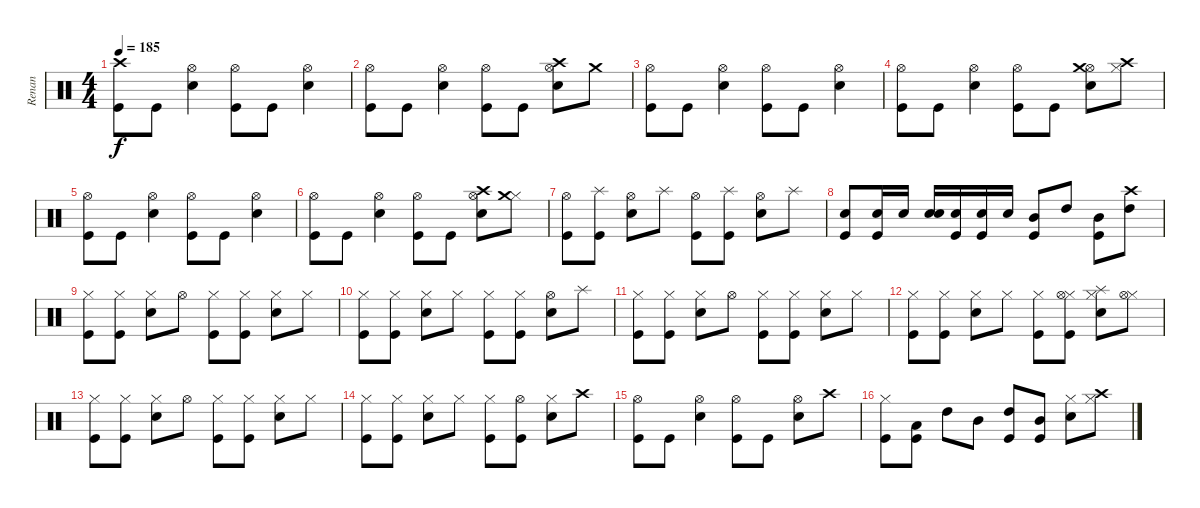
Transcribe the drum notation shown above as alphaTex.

\track ("Renan" "Renan") {instrument percussion}
\staff {score}
\articulation defaults
\ts (4 4)
\tempo 185
\clef neutral
\ks c
("Crash high (hit)" "Kick (hit)").8{dy f} "Kick (hit)".8 ("Hi-Hat (open)" "Snare (hit) 2").4 ("Hi-Hat (open)" "Kick (hit)").8 "Kick (hit)".8 ("Hi-Hat (open)" "Snare (hit) 2").4 |
("Hi-Hat (open)" "Kick (hit)").8 "Kick (hit)".8 ("Hi-Hat (open)" "Snare (hit) 2").4 ("Hi-Hat (open)" "Kick (hit)").8 "Kick (hit)".8 ("Hi-Hat (open)" "Crash high (hit)" "Snare (hit) 2").8 "Crash medium (hit)".8 |
("Hi-Hat (open)" "Kick (hit)").8 "Kick (hit)".8 ("Hi-Hat (open)" "Snare (hit) 2").4 ("Hi-Hat (open)" "Kick (hit)").8 "Kick (hit)".8 ("Hi-Hat (open)" "Snare (hit) 2").4 |
("Hi-Hat (open)" "Kick (hit)").8 "Kick (hit)".8 ("Hi-Hat (open)" "Snare (hit) 2").4 ("Hi-Hat (open)" "Kick (hit)").8 "Kick (hit)".8 ("Hi-Hat (open)" "Crash medium (hit)" "Snare (hit) 2").8 ("Hi-Hat (closed)" "Crash high (hit)").8 |
("Hi-Hat (open)" "Kick (hit)").8 "Kick (hit)".8 ("Hi-Hat (open)" "Snare (hit) 2").4 ("Hi-Hat (open)" "Kick (hit)").8 "Kick (hit)".8 ("Hi-Hat (open)" "Snare (hit) 2").4 |
("Hi-Hat (open)" "Kick (hit)").8 "Kick (hit)".8 ("Hi-Hat (open)" "Snare (hit) 2").4 ("Hi-Hat (open)" "Kick (hit)").8 "Kick (hit)".8 ("Hi-Hat (open)" "Crash high (hit)" "Snare (hit) 2").8 ("Hi-Hat (closed)" "Crash medium (hit)").8 |
("Hi-Hat (open)" "Kick (hit)").8 ("Splash (hit)" "Kick (hit)").8 ("Hi-Hat (open)" "Snare (hit) 2").8 "Splash (hit)".8 ("Hi-Hat (open)" "Kick (hit)").8 ("Splash (hit)" "Kick (hit)").8 ("Hi-Hat (open)" "Snare (hit) 2").8 "Splash (hit)".8 |
("Electric Snare (hit)" "Kick (hit)").8 ("Electric Snare (hit)" "Kick (hit)").16 "Electric Snare (hit)".16 ("Electric Snare (hit)" "Snare (hit) 2").16 ("Electric Snare (hit)" "Kick (hit)").16 ("Electric Snare (hit)" "Kick (hit)").16 "Electric Snare (hit)".16 ("Mid Tom (hit)" "Kick (hit)").8 "High Tom (hit)".8 ("Mid Tom (hit)" "Kick (hit)").8 ("Crash high (hit)" "High Tom (hit)").8 |
("Hi-Hat (closed)" "Kick (hit)").8 ("Hi-Hat (closed)" "Kick (hit)").8 ("Hi-Hat (closed)" "Snare (hit) 2").8 "Hi-Hat (open)".8 ("Hi-Hat (closed)" "Kick (hit)").8 ("Hi-Hat (closed)" "Kick (hit)").8 ("Hi-Hat (closed)" "Snare (hit) 2").8 "Hi-Hat (closed)".8 |
("Hi-Hat (closed)" "Kick (hit)").8 ("Hi-Hat (closed)" "Kick (hit)").8 ("Hi-Hat (closed)" "Snare (hit) 2").8 "Hi-Hat (closed)".8 ("Hi-Hat (closed)" "Kick (hit)").8 ("Hi-Hat (closed)" "Kick (hit)").8 ("Hi-Hat (open)" "Snare (hit) 2").8 "Splash (hit)".8 |
("Hi-Hat (closed)" "Kick (hit)").8 ("Hi-Hat (closed)" "Kick (hit)").8 ("Hi-Hat (closed)" "Snare (hit) 2").8 "Hi-Hat (open)".8 ("Hi-Hat (closed)" "Kick (hit)").8 ("Hi-Hat (closed)" "Kick (hit)").8 ("Hi-Hat (closed)" "Snare (hit) 2").8 "Hi-Hat (closed)".8 |
("Hi-Hat (closed)" "Kick (hit)").8 ("Hi-Hat (closed)" "Kick (hit)").8 ("Hi-Hat (closed)" "Snare (hit) 2").8 "Hi-Hat (closed)".8 ("Hi-Hat (closed)" "Kick (hit)").8 ("Hi-Hat (closed)" "Hi-Hat (open)" "Kick (hit)").8 ("Hi-Hat (closed)" "Splash (hit)" "Snare (hit) 2").8 ("Hi-Hat (closed)" "Hi-Hat (open)").8 |
("Hi-Hat (closed)" "Kick (hit)").8 ("Hi-Hat (closed)" "Kick (hit)").8 ("Hi-Hat (closed)" "Snare (hit) 2").8 "Hi-Hat (open)".8 ("Hi-Hat (closed)" "Kick (hit)").8 ("Hi-Hat (closed)" "Kick (hit)").8 ("Hi-Hat (closed)" "Snare (hit) 2").8 "Hi-Hat (closed)".8 |
("Hi-Hat (closed)" "Kick (hit)").8 ("Hi-Hat (closed)" "Kick (hit)").8 ("Hi-Hat (closed)" "Snare (hit) 2").8 "Hi-Hat (closed)".8 ("Hi-Hat (closed)" "Kick (hit)").8 ("Hi-Hat (open)" "Kick (hit)").8 ("Hi-Hat (closed)" "Snare (hit) 2").8 "Crash high (hit)".8 |
("Hi-Hat (open)" "Kick (hit)").8 "Kick (hit)".8 ("Hi-Hat (open)" "Snare (hit) 2").4 ("Hi-Hat (open)" "Kick (hit)").8 "Kick (hit)".8 ("Hi-Hat (open)" "Snare (hit) 2").8 "Crash high (hit)".8 |
("Hi-Hat (closed)" "Kick (hit)").8 ("Low Floor Tom (hit)" "Kick (hit)").8 "High Tom (hit)".8 "Mid Tom (hit)".8 ("High Tom (hit)" "Kick (hit)").8 ("Mid Tom (hit)" "Kick (hit)").8 ("Hi-Hat (closed)" "Snare (hit) 2").8 ("Hi-Hat (closed)" "Crash high (hit)").8
